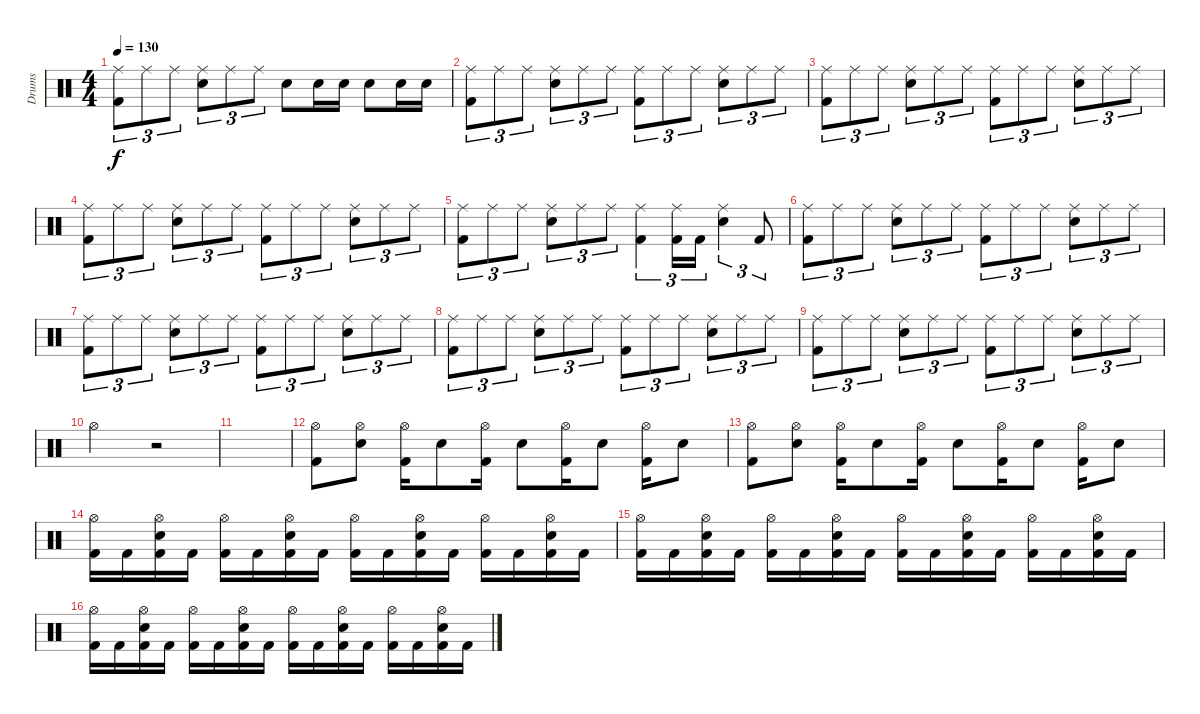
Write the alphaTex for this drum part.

\track ("Drums" "Drums") {instrument percussion}
\staff {score}
\articulation defaults
\ts (4 4)
\tempo 130
\clef neutral
\ks c
("Ride (middle)" "Kick (hit) 2").8{tu (3 2) dy f} "Ride (middle)".8{tu (3 2)} "Ride (middle)".8{tu (3 2)} ("Ride (middle)" "Electric Snare (hit)").8{tu (3 2)} "Ride (middle)".8{tu (3 2)} "Ride (middle)".8{tu (3 2)} "Electric Snare (hit)".8 "Electric Snare (hit)".16 "Electric Snare (hit)".16 "Electric Snare (hit)".8 "Electric Snare (hit)".16 "Electric Snare (hit)".16 |
("Ride (middle)" "Kick (hit) 2").8{tu (3 2)} "Ride (middle)".8{tu (3 2)} "Ride (middle)".8{tu (3 2)} ("Ride (middle)" "Electric Snare (hit)").8{tu (3 2)} "Ride (middle)".8{tu (3 2)} "Ride (middle)".8{tu (3 2)} ("Ride (middle)" "Kick (hit) 2").8{tu (3 2)} "Ride (middle)".8{tu (3 2)} "Ride (middle)".8{tu (3 2)} ("Ride (middle)" "Electric Snare (hit)").8{tu (3 2)} "Ride (middle)".8{tu (3 2)} "Ride (middle)".8{tu (3 2)} |
("Ride (middle)" "Kick (hit) 2").8{tu (3 2)} "Ride (middle)".8{tu (3 2)} "Ride (middle)".8{tu (3 2)} ("Ride (middle)" "Electric Snare (hit)").8{tu (3 2)} "Ride (middle)".8{tu (3 2)} "Ride (middle)".8{tu (3 2)} ("Ride (middle)" "Kick (hit) 2").8{tu (3 2)} "Ride (middle)".8{tu (3 2)} "Ride (middle)".8{tu (3 2)} ("Ride (middle)" "Electric Snare (hit)").8{tu (3 2)} "Ride (middle)".8{tu (3 2)} "Ride (middle)".8{tu (3 2)} |
("Ride (middle)" "Kick (hit) 2").8{tu (3 2)} "Ride (middle)".8{tu (3 2)} "Ride (middle)".8{tu (3 2)} ("Ride (middle)" "Electric Snare (hit)").8{tu (3 2)} "Ride (middle)".8{tu (3 2)} "Ride (middle)".8{tu (3 2)} ("Ride (middle)" "Kick (hit) 2").8{tu (3 2)} "Ride (middle)".8{tu (3 2)} "Ride (middle)".8{tu (3 2)} ("Ride (middle)" "Electric Snare (hit)").8{tu (3 2)} "Ride (middle)".8{tu (3 2)} "Ride (middle)".8{tu (3 2)} |
("Ride (middle)" "Kick (hit) 2").8{tu (3 2)} "Ride (middle)".8{tu (3 2)} "Ride (middle)".8{tu (3 2)} ("Ride (middle)" "Electric Snare (hit)").8{tu (3 2)} "Ride (middle)".8{tu (3 2)} "Ride (middle)".8{tu (3 2)} ("Ride (middle)" "Kick (hit) 2").4{tu (3 2)} ("Ride (middle)" "Kick (hit) 2").16{tu (3 2)} "Kick (hit) 2".16{tu (3 2)} ("Ride (middle)" "Electric Snare (hit)").4{tu (3 2)} "Kick (hit) 2".8{tu (3 2)} |
("Ride (middle)" "Kick (hit) 2").8{tu (3 2)} "Ride (middle)".8{tu (3 2)} "Ride (middle)".8{tu (3 2)} ("Ride (middle)" "Electric Snare (hit)").8{tu (3 2)} "Ride (middle)".8{tu (3 2)} "Ride (middle)".8{tu (3 2)} ("Ride (middle)" "Kick (hit) 2").8{tu (3 2)} "Ride (middle)".8{tu (3 2)} "Ride (middle)".8{tu (3 2)} ("Ride (middle)" "Electric Snare (hit)").8{tu (3 2)} "Ride (middle)".8{tu (3 2)} "Ride (middle)".8{tu (3 2)} |
("Ride (middle)" "Kick (hit) 2").8{tu (3 2)} "Ride (middle)".8{tu (3 2)} "Ride (middle)".8{tu (3 2)} ("Ride (middle)" "Electric Snare (hit)").8{tu (3 2)} "Ride (middle)".8{tu (3 2)} "Ride (middle)".8{tu (3 2)} ("Ride (middle)" "Kick (hit) 2").8{tu (3 2)} "Ride (middle)".8{tu (3 2)} "Ride (middle)".8{tu (3 2)} ("Ride (middle)" "Electric Snare (hit)").8{tu (3 2)} "Ride (middle)".8{tu (3 2)} "Ride (middle)".8{tu (3 2)} |
("Ride (middle)" "Kick (hit) 2").8{tu (3 2)} "Ride (middle)".8{tu (3 2)} "Ride (middle)".8{tu (3 2)} ("Ride (middle)" "Electric Snare (hit)").8{tu (3 2)} "Ride (middle)".8{tu (3 2)} "Ride (middle)".8{tu (3 2)} ("Ride (middle)" "Kick (hit) 2").8{tu (3 2)} "Ride (middle)".8{tu (3 2)} "Ride (middle)".8{tu (3 2)} ("Ride (middle)" "Electric Snare (hit)").8{tu (3 2)} "Ride (middle)".8{tu (3 2)} "Ride (middle)".8{tu (3 2)} |
("Ride (middle)" "Kick (hit) 2").8{tu (3 2)} "Ride (middle)".8{tu (3 2)} "Ride (middle)".8{tu (3 2)} ("Ride (middle)" "Electric Snare (hit)").8{tu (3 2)} "Ride (middle)".8{tu (3 2)} "Ride (middle)".8{tu (3 2)} ("Ride (middle)" "Kick (hit) 2").8{tu (3 2)} "Ride (middle)".8{tu (3 2)} "Ride (middle)".8{tu (3 2)} ("Ride (middle)" "Electric Snare (hit)").8{tu (3 2)} "Ride (middle)".8{tu (3 2)} "Ride (middle)".8{tu (3 2)} |
"Hi-Hat (open)".2 r.2 |
|
("Hi-Hat (open)" "Kick (hit) 2").8 ("Hi-Hat (open)" "Electric Snare (hit)").8 ("Hi-Hat (open)" "Kick (hit) 2").16 "Electric Snare (hit)".8 ("Hi-Hat (open)" "Kick (hit) 2").16 "Electric Snare (hit)".8 ("Hi-Hat (open)" "Kick (hit) 2").16 "Electric Snare (hit)".8 ("Hi-Hat (open)" "Kick (hit) 2").16 "Electric Snare (hit)".8 |
("Hi-Hat (open)" "Kick (hit) 2").8 ("Hi-Hat (open)" "Electric Snare (hit)").8 ("Hi-Hat (open)" "Kick (hit) 2").16 "Electric Snare (hit)".8 ("Hi-Hat (open)" "Kick (hit) 2").16 "Electric Snare (hit)".8 ("Hi-Hat (open)" "Kick (hit) 2").16 "Electric Snare (hit)".8 ("Hi-Hat (open)" "Kick (hit) 2").16 "Electric Snare (hit)".8 |
("Hi-Hat (open)" "Kick (hit) 2").16 "Kick (hit) 2".16 ("Hi-Hat (open)" "Electric Snare (hit)" "Kick (hit) 2").16 "Kick (hit) 2".16 ("Hi-Hat (open)" "Kick (hit) 2").16 "Kick (hit) 2".16 ("Hi-Hat (open)" "Electric Snare (hit)" "Kick (hit) 2").16 "Kick (hit) 2".16 ("Hi-Hat (open)" "Kick (hit) 2").16 "Kick (hit) 2".16 ("Hi-Hat (open)" "Electric Snare (hit)" "Kick (hit) 2").16 "Kick (hit) 2".16 ("Hi-Hat (open)" "Kick (hit) 2").16 "Kick (hit) 2".16 ("Hi-Hat (open)" "Electric Snare (hit)" "Kick (hit) 2").16 "Kick (hit) 2".16 |
("Hi-Hat (open)" "Kick (hit) 2").16 "Kick (hit) 2".16 ("Hi-Hat (open)" "Electric Snare (hit)" "Kick (hit) 2").16 "Kick (hit) 2".16 ("Hi-Hat (open)" "Kick (hit) 2").16 "Kick (hit) 2".16 ("Hi-Hat (open)" "Electric Snare (hit)" "Kick (hit) 2").16 "Kick (hit) 2".16 ("Hi-Hat (open)" "Kick (hit) 2").16 "Kick (hit) 2".16 ("Hi-Hat (open)" "Electric Snare (hit)" "Kick (hit) 2").16 "Kick (hit) 2".16 ("Hi-Hat (open)" "Kick (hit) 2").16 "Kick (hit) 2".16 ("Hi-Hat (open)" "Electric Snare (hit)" "Kick (hit) 2").16 "Kick (hit) 2".16 |
("Hi-Hat (open)" "Kick (hit) 2").16 "Kick (hit) 2".16 ("Hi-Hat (open)" "Electric Snare (hit)" "Kick (hit) 2").16 "Kick (hit) 2".16 ("Hi-Hat (open)" "Kick (hit) 2").16 "Kick (hit) 2".16 ("Hi-Hat (open)" "Electric Snare (hit)" "Kick (hit) 2").16 "Kick (hit) 2".16 ("Hi-Hat (open)" "Kick (hit) 2").16 "Kick (hit) 2".16 ("Hi-Hat (open)" "Electric Snare (hit)" "Kick (hit) 2").16 "Kick (hit) 2".16 ("Hi-Hat (open)" "Kick (hit) 2").16 "Kick (hit) 2".16 ("Hi-Hat (open)" "Electric Snare (hit)" "Kick (hit) 2").16 "Kick (hit) 2".16
